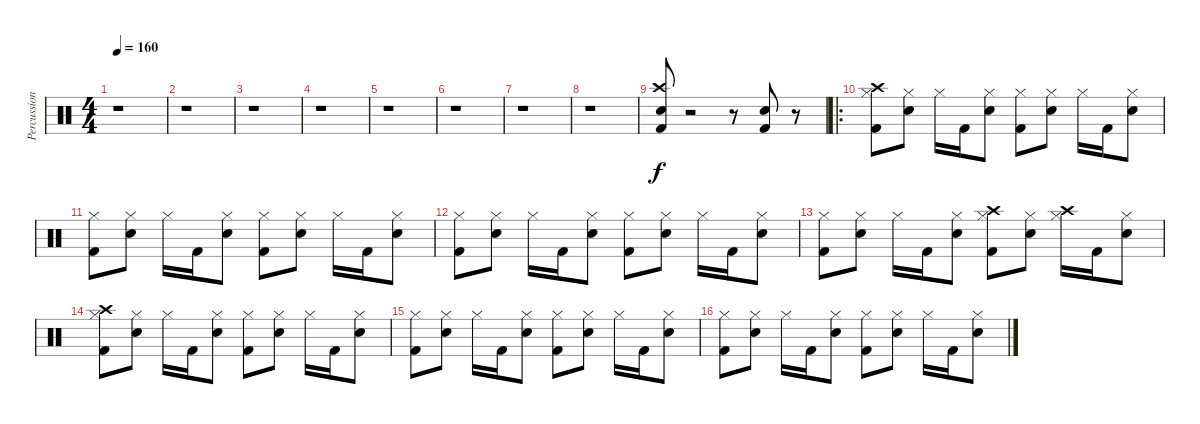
\track ("Percussion" "Percussion") {instrument percussion}
\staff {score}
\articulation defaults
\ts (4 4)
\tempo 160
\clef neutral
\ks c
r.1{dy f} |
r.1 |
r.1 |
r.1 |
r.1 |
r.1 |
r.1 |
r.1 |
("Snare (hit) 2" "Crash high (hit)" "Kick (hit) 2").8 r.2 r.8 ("Snare (hit) 2" "Kick (hit) 2").8 r.8 |
\ro
("Kick (hit) 2" "Hi-Hat (closed)" "Crash high (hit)").8 ("Hi-Hat (closed)" "Snare (hit) 2").8 "Hi-Hat (closed)".16 "Kick (hit) 2".16 ("Hi-Hat (closed)" "Snare (hit) 2").8 ("Kick (hit) 2" "Hi-Hat (closed)").8 ("Hi-Hat (closed)" "Snare (hit) 2").8 "Hi-Hat (closed)".16 "Kick (hit) 2".16 ("Hi-Hat (closed)" "Snare (hit) 2").8 |
("Kick (hit) 2" "Hi-Hat (closed)").8 ("Hi-Hat (closed)" "Snare (hit) 2").8 "Hi-Hat (closed)".16 "Kick (hit) 2".16 ("Hi-Hat (closed)" "Snare (hit) 2").8 ("Kick (hit) 2" "Hi-Hat (closed)").8 ("Hi-Hat (closed)" "Snare (hit) 2").8 "Hi-Hat (closed)".16 "Kick (hit) 2".16 ("Hi-Hat (closed)" "Snare (hit) 2").8 |
("Kick (hit) 2" "Hi-Hat (closed)").8 ("Hi-Hat (closed)" "Snare (hit) 2").8 "Hi-Hat (closed)".16 "Kick (hit) 2".16 ("Hi-Hat (closed)" "Snare (hit) 2").8 ("Kick (hit) 2" "Hi-Hat (closed)").8 ("Hi-Hat (closed)" "Snare (hit) 2").8 "Hi-Hat (closed)".16 "Kick (hit) 2".16 ("Hi-Hat (closed)" "Snare (hit) 2").8 |
("Kick (hit) 2" "Hi-Hat (closed)").8 ("Hi-Hat (closed)" "Snare (hit) 2").8 "Hi-Hat (closed)".16 "Kick (hit) 2".16 ("Hi-Hat (closed)" "Snare (hit) 2").8 ("Kick (hit) 2" "Hi-Hat (closed)" "Crash high (hit)").8 ("Hi-Hat (closed)" "Snare (hit) 2").8 ("Hi-Hat (closed)" "Crash high (hit)").16 "Kick (hit) 2".16 ("Hi-Hat (closed)" "Snare (hit) 2").8 |
("Kick (hit) 2" "Hi-Hat (closed)" "Crash high (hit)").8 ("Hi-Hat (closed)" "Snare (hit) 2").8 "Hi-Hat (closed)".16 "Kick (hit) 2".16 ("Hi-Hat (closed)" "Snare (hit) 2").8 ("Kick (hit) 2" "Hi-Hat (closed)").8 ("Hi-Hat (closed)" "Snare (hit) 2").8 "Hi-Hat (closed)".16 "Kick (hit) 2".16 ("Hi-Hat (closed)" "Snare (hit) 2").8 |
("Kick (hit) 2" "Hi-Hat (closed)").8 ("Hi-Hat (closed)" "Snare (hit) 2").8 "Hi-Hat (closed)".16 "Kick (hit) 2".16 ("Hi-Hat (closed)" "Snare (hit) 2").8 ("Kick (hit) 2" "Hi-Hat (closed)").8 ("Hi-Hat (closed)" "Snare (hit) 2").8 "Hi-Hat (closed)".16 "Kick (hit) 2".16 ("Hi-Hat (closed)" "Snare (hit) 2").8 |
("Kick (hit) 2" "Hi-Hat (closed)").8 ("Hi-Hat (closed)" "Snare (hit) 2").8 "Hi-Hat (closed)".16 "Kick (hit) 2".16 ("Hi-Hat (closed)" "Snare (hit) 2").8 ("Kick (hit) 2" "Hi-Hat (closed)").8 ("Hi-Hat (closed)" "Snare (hit) 2").8 "Hi-Hat (closed)".16 "Kick (hit) 2".16 ("Hi-Hat (closed)" "Snare (hit) 2").8
